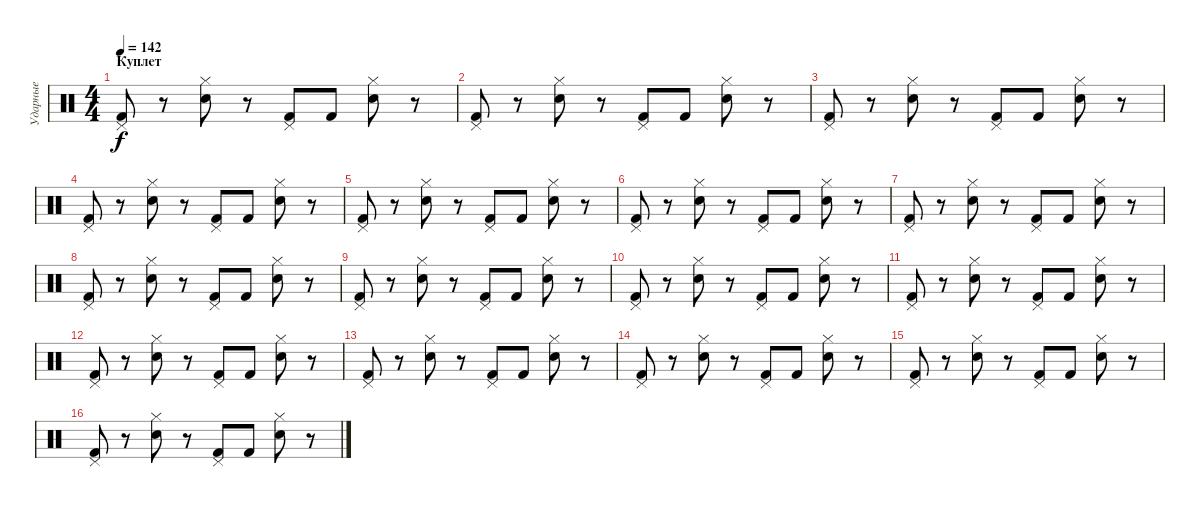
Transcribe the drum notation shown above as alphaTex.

\track ("Ударные" "Ударные") {instrument percussion}
\staff {score}
\articulation defaults
\ts (4 4)
\section ("" "Куплет")
\tempo 142
\clef neutral
\ks c
("Pedal Hi-Hat (hit)" "Kick (hit) 2").8{dy f} r.8 ("Hi-Hat (closed)" "Electric Snare (hit)").8 r.8 ("Pedal Hi-Hat (hit)" "Kick (hit) 2").8 "Kick (hit) 2".8 ("Hi-Hat (closed)" "Electric Snare (hit)").8 r.8 |
("Pedal Hi-Hat (hit)" "Kick (hit) 2").8 r.8 ("Hi-Hat (closed)" "Electric Snare (hit)").8 r.8 ("Pedal Hi-Hat (hit)" "Kick (hit) 2").8 "Kick (hit) 2".8 ("Hi-Hat (closed)" "Electric Snare (hit)").8 r.8 |
("Pedal Hi-Hat (hit)" "Kick (hit) 2").8 r.8 ("Hi-Hat (closed)" "Electric Snare (hit)").8 r.8 ("Pedal Hi-Hat (hit)" "Kick (hit) 2").8 "Kick (hit) 2".8 ("Hi-Hat (closed)" "Electric Snare (hit)").8 r.8 |
("Pedal Hi-Hat (hit)" "Kick (hit) 2").8 r.8 ("Hi-Hat (closed)" "Electric Snare (hit)").8 r.8 ("Pedal Hi-Hat (hit)" "Kick (hit) 2").8 "Kick (hit) 2".8 ("Hi-Hat (closed)" "Electric Snare (hit)").8 r.8 |
("Pedal Hi-Hat (hit)" "Kick (hit) 2").8 r.8 ("Hi-Hat (closed)" "Electric Snare (hit)").8 r.8 ("Pedal Hi-Hat (hit)" "Kick (hit) 2").8 "Kick (hit) 2".8 ("Hi-Hat (closed)" "Electric Snare (hit)").8 r.8 |
("Pedal Hi-Hat (hit)" "Kick (hit) 2").8 r.8 ("Hi-Hat (closed)" "Electric Snare (hit)").8 r.8 ("Pedal Hi-Hat (hit)" "Kick (hit) 2").8 "Kick (hit) 2".8 ("Hi-Hat (closed)" "Electric Snare (hit)").8 r.8 |
("Pedal Hi-Hat (hit)" "Kick (hit) 2").8 r.8 ("Hi-Hat (closed)" "Electric Snare (hit)").8 r.8 ("Pedal Hi-Hat (hit)" "Kick (hit) 2").8 "Kick (hit) 2".8 ("Hi-Hat (closed)" "Electric Snare (hit)").8 r.8 |
("Pedal Hi-Hat (hit)" "Kick (hit) 2").8 r.8 ("Hi-Hat (closed)" "Electric Snare (hit)").8 r.8 ("Pedal Hi-Hat (hit)" "Kick (hit) 2").8 "Kick (hit) 2".8 ("Hi-Hat (closed)" "Electric Snare (hit)").8 r.8 |
("Pedal Hi-Hat (hit)" "Kick (hit) 2").8 r.8 ("Hi-Hat (closed)" "Electric Snare (hit)").8 r.8 ("Pedal Hi-Hat (hit)" "Kick (hit) 2").8 "Kick (hit) 2".8 ("Hi-Hat (closed)" "Electric Snare (hit)").8 r.8 |
("Pedal Hi-Hat (hit)" "Kick (hit) 2").8 r.8 ("Hi-Hat (closed)" "Electric Snare (hit)").8 r.8 ("Pedal Hi-Hat (hit)" "Kick (hit) 2").8 "Kick (hit) 2".8 ("Hi-Hat (closed)" "Electric Snare (hit)").8 r.8 |
("Pedal Hi-Hat (hit)" "Kick (hit) 2").8 r.8 ("Hi-Hat (closed)" "Electric Snare (hit)").8 r.8 ("Pedal Hi-Hat (hit)" "Kick (hit) 2").8 "Kick (hit) 2".8 ("Hi-Hat (closed)" "Electric Snare (hit)").8 r.8 |
("Pedal Hi-Hat (hit)" "Kick (hit) 2").8 r.8 ("Hi-Hat (closed)" "Electric Snare (hit)").8 r.8 ("Pedal Hi-Hat (hit)" "Kick (hit) 2").8 "Kick (hit) 2".8 ("Hi-Hat (closed)" "Electric Snare (hit)").8 r.8 |
("Pedal Hi-Hat (hit)" "Kick (hit) 2").8 r.8 ("Hi-Hat (closed)" "Electric Snare (hit)").8 r.8 ("Pedal Hi-Hat (hit)" "Kick (hit) 2").8 "Kick (hit) 2".8 ("Hi-Hat (closed)" "Electric Snare (hit)").8 r.8 |
("Pedal Hi-Hat (hit)" "Kick (hit) 2").8 r.8 ("Hi-Hat (closed)" "Electric Snare (hit)").8 r.8 ("Pedal Hi-Hat (hit)" "Kick (hit) 2").8 "Kick (hit) 2".8 ("Hi-Hat (closed)" "Electric Snare (hit)").8 r.8 |
("Pedal Hi-Hat (hit)" "Kick (hit) 2").8 r.8 ("Hi-Hat (closed)" "Electric Snare (hit)").8 r.8 ("Pedal Hi-Hat (hit)" "Kick (hit) 2").8 "Kick (hit) 2".8 ("Hi-Hat (closed)" "Electric Snare (hit)").8 r.8 |
("Pedal Hi-Hat (hit)" "Kick (hit) 2").8 r.8 ("Hi-Hat (closed)" "Electric Snare (hit)").8 r.8 ("Pedal Hi-Hat (hit)" "Kick (hit) 2").8 "Kick (hit) 2".8 ("Hi-Hat (closed)" "Electric Snare (hit)").8 r.8
